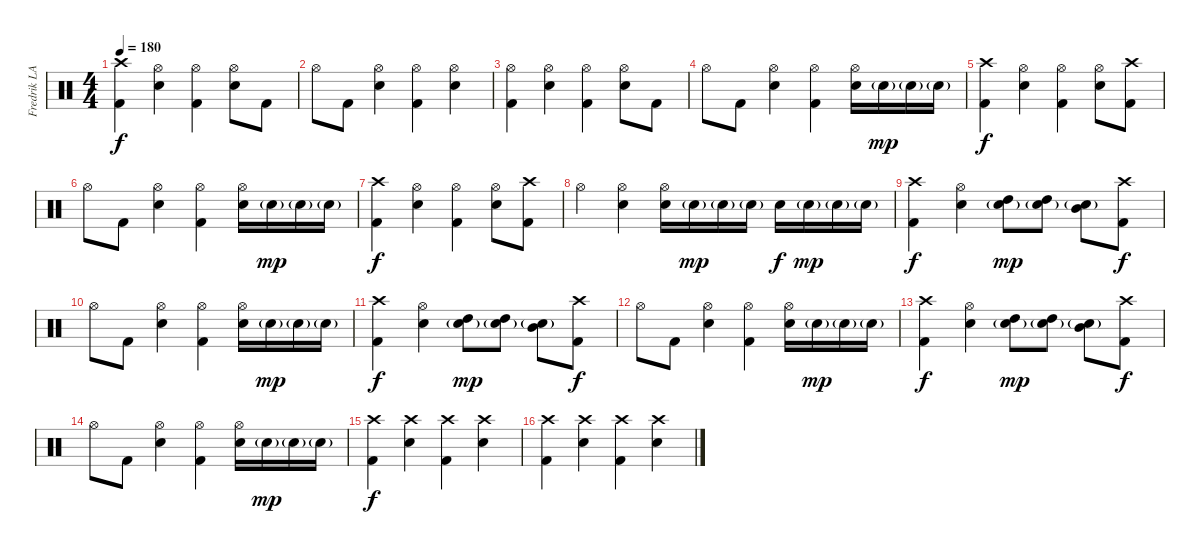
\track ("Fredrik LARZON" "Fredrik LA") {instrument percussion}
\staff {score}
\articulation defaults
\ts (4 4)
\tempo 180
\clef neutral
\ks c
("Crash high (hit)" "Kick (hit) 2").4{dy f} ("Hi-Hat (open)" "Electric Snare (hit)").4 ("Hi-Hat (open)" "Kick (hit) 2").4 ("Hi-Hat (open)" "Electric Snare (hit)").8 "Kick (hit) 2".8 |
"Hi-Hat (open)".8 "Kick (hit) 2".8 ("Hi-Hat (open)" "Electric Snare (hit)").4 ("Hi-Hat (open)" "Kick (hit) 2").4 ("Hi-Hat (open)" "Electric Snare (hit)").4 |
("Hi-Hat (open)" "Kick (hit) 2").4 ("Hi-Hat (open)" "Electric Snare (hit)").4 ("Hi-Hat (open)" "Kick (hit) 2").4 ("Hi-Hat (open)" "Electric Snare (hit)").8 "Kick (hit) 2".8 |
"Hi-Hat (open)".8 "Kick (hit) 2".8 ("Hi-Hat (open)" "Electric Snare (hit)").4 ("Hi-Hat (open)" "Kick (hit) 2").4 ("Hi-Hat (open)" "Electric Snare (hit)").16 "Electric Snare (hit)"{g}.16{dy mp} "Electric Snare (hit)"{g}.16 "Electric Snare (hit)"{g}.16 |
("Crash high (hit)" "Kick (hit) 2").4{dy f} ("Hi-Hat (open)" "Electric Snare (hit)").4 ("Hi-Hat (open)" "Kick (hit) 2").4 ("Hi-Hat (open)" "Electric Snare (hit)").8 ("Crash high (hit)" "Kick (hit) 2").8 |
"Hi-Hat (open)".8 "Kick (hit) 2".8 ("Hi-Hat (open)" "Electric Snare (hit)").4 ("Hi-Hat (open)" "Kick (hit) 2").4 ("Hi-Hat (open)" "Electric Snare (hit)").16 "Electric Snare (hit)"{g}.16{dy mp} "Electric Snare (hit)"{g}.16 "Electric Snare (hit)"{g}.16 |
("Crash high (hit)" "Kick (hit) 2").4{dy f} ("Hi-Hat (open)" "Electric Snare (hit)").4 ("Hi-Hat (open)" "Kick (hit) 2").4 ("Hi-Hat (open)" "Electric Snare (hit)").8 ("Crash high (hit)" "Kick (hit) 2").8 |
"Hi-Hat (open)".4 ("Hi-Hat (open)" "Electric Snare (hit)").4 ("Hi-Hat (open)" "Electric Snare (hit)").16 "Electric Snare (hit)"{g}.16{dy mp} "Electric Snare (hit)"{g}.16 "Electric Snare (hit)"{g}.16 "Electric Snare (hit)".16{dy f} "Electric Snare (hit)"{g}.16{dy mp} "Electric Snare (hit)"{g}.16 "Electric Snare (hit)"{g}.16 |
("Crash high (hit)" "Kick (hit) 2").4{dy f} ("Hi-Hat (open)" "Electric Snare (hit)").4 ("Electric Snare (hit)"{g} "High Tom (hit)").8{dy mp} ("Electric Snare (hit)"{g} "High Tom (hit)").8 ("Electric Snare (hit)"{g} "Mid Tom (hit)").8 ("Crash high (hit)" "Kick (hit) 2").8{dy f} |
"Hi-Hat (open)".8 "Kick (hit) 2".8 ("Hi-Hat (open)" "Electric Snare (hit)").4 ("Hi-Hat (open)" "Kick (hit) 2").4 ("Hi-Hat (open)" "Electric Snare (hit)").16 "Electric Snare (hit)"{g}.16{dy mp} "Electric Snare (hit)"{g}.16 "Electric Snare (hit)"{g}.16 |
("Crash high (hit)" "Kick (hit) 2").4{dy f} ("Hi-Hat (open)" "Electric Snare (hit)").4 ("Electric Snare (hit)"{g} "High Tom (hit)").8{dy mp} ("Electric Snare (hit)"{g} "High Tom (hit)").8 ("Electric Snare (hit)"{g} "Mid Tom (hit)").8 ("Crash high (hit)" "Kick (hit) 2").8{dy f} |
"Hi-Hat (open)".8 "Kick (hit) 2".8 ("Hi-Hat (open)" "Electric Snare (hit)").4 ("Hi-Hat (open)" "Kick (hit) 2").4 ("Hi-Hat (open)" "Electric Snare (hit)").16 "Electric Snare (hit)"{g}.16{dy mp} "Electric Snare (hit)"{g}.16 "Electric Snare (hit)"{g}.16 |
("Crash high (hit)" "Kick (hit) 2").4{dy f} ("Hi-Hat (open)" "Electric Snare (hit)").4 ("Electric Snare (hit)"{g} "High Tom (hit)").8{dy mp} ("Electric Snare (hit)"{g} "High Tom (hit)").8 ("Electric Snare (hit)"{g} "Mid Tom (hit)").8 ("Crash high (hit)" "Kick (hit) 2").8{dy f} |
"Hi-Hat (open)".8 "Kick (hit) 2".8 ("Hi-Hat (open)" "Electric Snare (hit)").4 ("Hi-Hat (open)" "Kick (hit) 2").4 ("Hi-Hat (open)" "Electric Snare (hit)").16 "Electric Snare (hit)"{g}.16{dy mp} "Electric Snare (hit)"{g}.16 "Electric Snare (hit)"{g}.16 |
("Crash high (hit)" "Kick (hit) 2").4{dy f} ("Crash high (hit)" "Electric Snare (hit)").4 ("Crash high (hit)" "Kick (hit) 2").4 ("Crash high (hit)" "Electric Snare (hit)").4 |
("Crash high (hit)" "Kick (hit) 2").4 ("Crash high (hit)" "Electric Snare (hit)").4 ("Crash high (hit)" "Kick (hit) 2").4 ("Crash high (hit)" "Electric Snare (hit)").4
